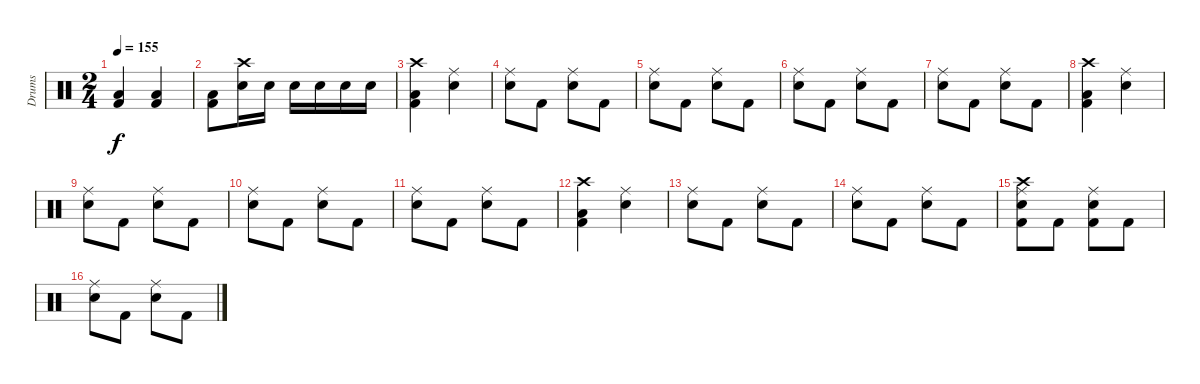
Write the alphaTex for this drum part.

\track ("Drums" "Drums") {instrument percussion}
\staff {score}
\articulation defaults
\ts (2 4)
\tempo 155
\clef neutral
\ks c
("Low Floor Tom (hit)" "Kick (hit) 2").4{dy f} ("Low Floor Tom (hit)" "Kick (hit) 2").4 |
("Low Floor Tom (hit)" "Kick (hit) 2").8 ("Snare (hit) 2" "Crash high (hit)").16 "Snare (hit) 2".16 "Snare (hit) 2".16 "Snare (hit) 2".16 "Snare (hit) 2".16 "Snare (hit) 2".16 |
("Low Floor Tom (hit)" "Kick (hit) 2" "Crash high (hit)").4 ("Snare (hit) 2" "Ride (middle)").4 |
("Snare (hit) 2" "Ride (middle)").8 "Kick (hit) 2".8 ("Snare (hit) 2" "Ride (middle)").8 "Kick (hit) 2".8 |
("Snare (hit) 2" "Ride (middle)").8 "Kick (hit) 2".8 ("Snare (hit) 2" "Ride (middle)").8 "Kick (hit) 2".8 |
("Snare (hit) 2" "Ride (middle)").8 "Kick (hit) 2".8 ("Snare (hit) 2" "Ride (middle)").8 "Kick (hit) 2".8 |
("Snare (hit) 2" "Ride (middle)").8 "Kick (hit) 2".8 ("Snare (hit) 2" "Ride (middle)").8 "Kick (hit) 2".8 |
("Low Floor Tom (hit)" "Kick (hit) 2" "Crash high (hit)").4 ("Snare (hit) 2" "Ride (middle)").4 |
("Snare (hit) 2" "Ride (middle)").8 "Kick (hit) 2".8 ("Snare (hit) 2" "Ride (middle)").8 "Kick (hit) 2".8 |
("Snare (hit) 2" "Ride (middle)").8 "Kick (hit) 2".8 ("Snare (hit) 2" "Ride (middle)").8 "Kick (hit) 2".8 |
("Snare (hit) 2" "Ride (middle)").8 "Kick (hit) 2".8 ("Snare (hit) 2" "Ride (middle)").8 "Kick (hit) 2".8 |
("Low Floor Tom (hit)" "Kick (hit) 2" "Crash high (hit)").4 ("Snare (hit) 2" "Ride (middle)").4 |
("Snare (hit) 2" "Ride (middle)").8 "Kick (hit) 2".8 ("Snare (hit) 2" "Ride (middle)").8 "Kick (hit) 2".8 |
("Snare (hit) 2" "Ride (middle)").8 "Kick (hit) 2".8 ("Snare (hit) 2" "Ride (middle)").8 "Kick (hit) 2".8 |
("Snare (hit) 2" "Ride (middle)" "Kick (hit) 2" "Crash high (hit)").8 "Kick (hit) 2".8 ("Snare (hit) 2" "Ride (middle)" "Kick (hit) 2").8 "Kick (hit) 2".8 |
("Snare (hit) 2" "Ride (middle)").8 "Kick (hit) 2".8 ("Snare (hit) 2" "Ride (middle)").8 "Kick (hit) 2".8
